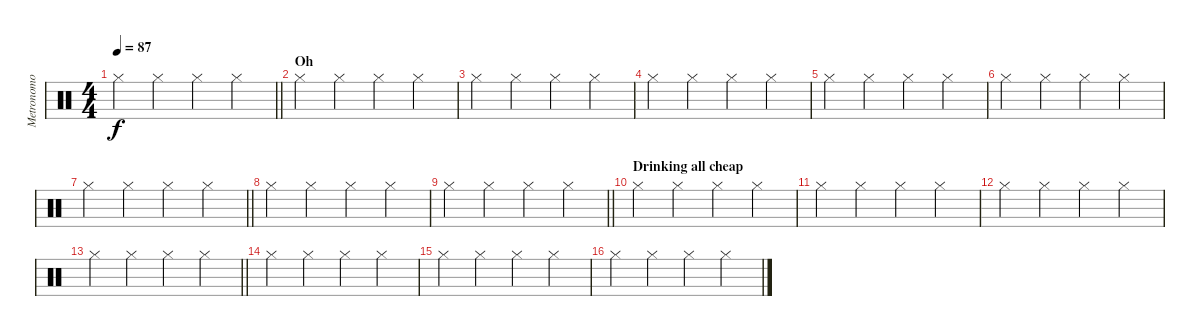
\track ("Metronomo" "Metronomo") {instrument percussion}
\staff {score}
\articulation defaults
\ts (4 4)
\tempo 87
\clef neutral
\barLineRight lightlight
\ks c "Hi-Hat (closed)".4{dy f} "Hi-Hat (closed)".4 "Hi-Hat (closed)".4 "Hi-Hat (closed)".4
|
\section ("" "Oh")
"Hi-Hat (closed)".4 "Hi-Hat (closed)".4 "Hi-Hat (closed)".4 "Hi-Hat (closed)".4 |
"Hi-Hat (closed)".4 "Hi-Hat (closed)".4 "Hi-Hat (closed)".4 "Hi-Hat (closed)".4 |
"Hi-Hat (closed)".4 "Hi-Hat (closed)".4 "Hi-Hat (closed)".4 "Hi-Hat (closed)".4 |
"Hi-Hat (closed)".4 "Hi-Hat (closed)".4 "Hi-Hat (closed)".4 "Hi-Hat (closed)".4 |
"Hi-Hat (closed)".4 "Hi-Hat (closed)".4 "Hi-Hat (closed)".4 "Hi-Hat (closed)".4 |
\barLineRight lightlight "Hi-Hat (closed)".4 "Hi-Hat (closed)".4 "Hi-Hat (closed)".4 "Hi-Hat (closed)".4
|
"Hi-Hat (closed)".4 "Hi-Hat (closed)".4 "Hi-Hat (closed)".4 "Hi-Hat (closed)".4 |
\barLineRight lightlight "Hi-Hat (closed)".4 "Hi-Hat (closed)".4 "Hi-Hat (closed)".4 "Hi-Hat (closed)".4
|
\section ("" "Drinking all cheap")
"Hi-Hat (closed)".4 "Hi-Hat (closed)".4 "Hi-Hat (closed)".4 "Hi-Hat (closed)".4 |
"Hi-Hat (closed)".4 "Hi-Hat (closed)".4 "Hi-Hat (closed)".4 "Hi-Hat (closed)".4 |
"Hi-Hat (closed)".4 "Hi-Hat (closed)".4 "Hi-Hat (closed)".4 "Hi-Hat (closed)".4 |
\barLineRight lightlight "Hi-Hat (closed)".4 "Hi-Hat (closed)".4 "Hi-Hat (closed)".4 "Hi-Hat (closed)".4
|
"Hi-Hat (closed)".4 "Hi-Hat (closed)".4 "Hi-Hat (closed)".4 "Hi-Hat (closed)".4 |
"Hi-Hat (closed)".4 "Hi-Hat (closed)".4 "Hi-Hat (closed)".4 "Hi-Hat (closed)".4 |
"Hi-Hat (closed)".4 "Hi-Hat (closed)".4 "Hi-Hat (closed)".4 "Hi-Hat (closed)".4
